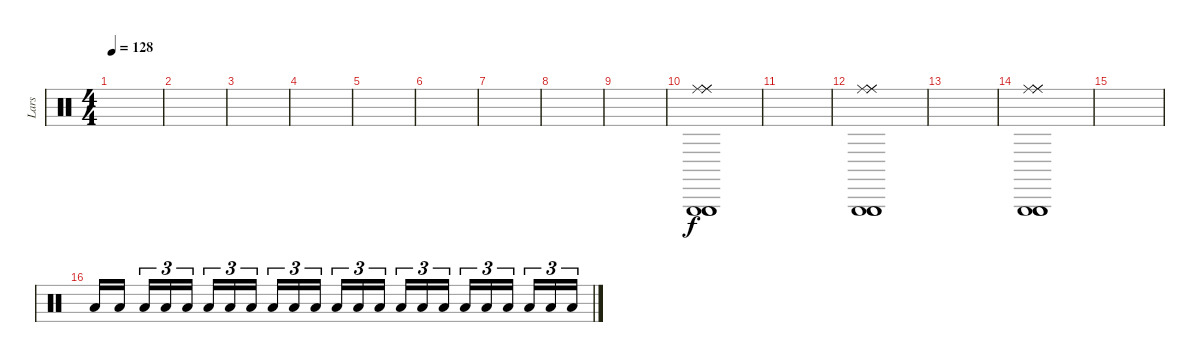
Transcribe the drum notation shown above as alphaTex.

\track ("Lars" "Lars") {instrument percussion}
\staff {score}
\articulation defaults
\ts (4 4)
\tempo 128
\clef neutral
\ks c
|
|
|
|
|
|
|
|
|
("Ride (middle)" "Ride (middle)" "Ride (middle)" "Triangle (hit)" "Triangle (hit)" "Triangle (hit)").1 |
|
("Ride (middle)" "Ride (middle)" "Ride (middle)" "Triangle (hit)" "Triangle (hit)" "Triangle (hit)").1 |
|
("Ride (middle)" "Ride (middle)" "Ride (middle)" "Triangle (hit)" "Triangle (hit)" "Triangle (hit)").1 |
|
"Low Floor Tom (hit)".16 "Low Floor Tom (hit)".16 "Low Floor Tom (hit)".16{tu (3 2)} "Low Floor Tom (hit)".16{tu (3 2)} "Low Floor Tom (hit)".16{tu (3 2)} "Low Floor Tom (hit)".16{tu (3 2)} "Low Floor Tom (hit)".16{tu (3 2)} "Low Floor Tom (hit)".16{tu (3 2)} "Low Floor Tom (hit)".16{tu (3 2)} "Low Floor Tom (hit)".16{tu (3 2)} "Low Floor Tom (hit)".16{tu (3 2)} "Low Floor Tom (hit)".16{tu (3 2)} "Low Floor Tom (hit)".16{tu (3 2)} "Low Floor Tom (hit)".16{tu (3 2)} "Low Floor Tom (hit)".16{tu (3 2)} "Low Floor Tom (hit)".16{tu (3 2)} "Low Floor Tom (hit)".16{tu (3 2)} "Low Floor Tom (hit)".16{tu (3 2)} "Low Floor Tom (hit)".16{tu (3 2)} "Low Floor Tom (hit)".16{tu (3 2)} "Low Floor Tom (hit)".16{tu (3 2)} "Low Floor Tom (hit)".16{tu (3 2)} "Low Floor Tom (hit)".16{tu (3 2)}
